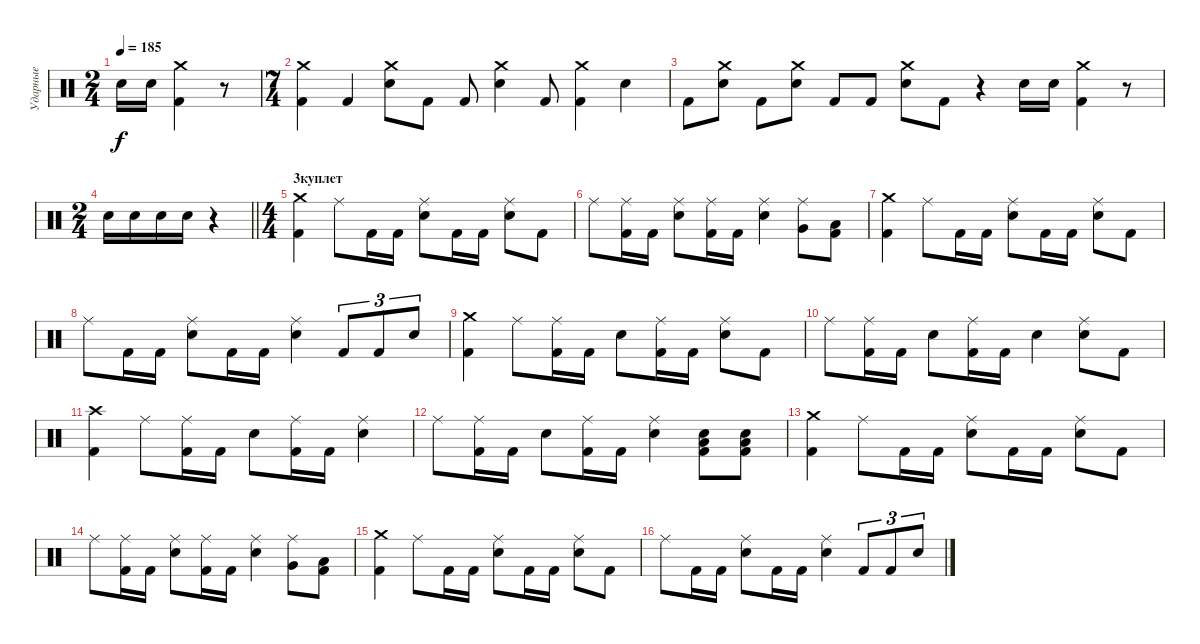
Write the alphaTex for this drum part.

\track ("Ударные" "Ударные") {instrument percussion}
\staff {score}
\articulation defaults
\ts (2 4)
\tempo 185
\clef neutral
\ks c "Electric Snare (hit)".16{dy f} "Electric Snare (hit)".16
("Crash medium (hit)" "Kick (hit) 2").4 r.8 |
\ts (7 4)
("Crash medium (hit)" "Kick (hit) 2").4 "Kick (hit) 2".4 ("Crash medium (hit)" "Electric Snare (hit)").8 "Kick (hit) 2".8 "Kick (hit) 2".8 ("Crash medium (hit)" "Electric Snare (hit)").4 "Kick (hit) 2".8 ("Crash medium (hit)" "Kick (hit) 2").4 "Electric Snare (hit)".4 |
"Kick (hit) 2".8 ("Crash medium (hit)" "Electric Snare (hit)").8 "Kick (hit) 2".8 ("Crash medium (hit)" "Electric Snare (hit)").8 "Kick (hit) 2".8 "Kick (hit) 2".8 ("Crash medium (hit)" "Electric Snare (hit)").8 "Kick (hit) 2".8 r.4 "Electric Snare (hit)".16 "Electric Snare (hit)".16 ("Crash medium (hit)" "Kick (hit) 2").4 r.8 |
\ts (2 4)
\barLineRight lightlight "Electric Snare (hit)".16 "Electric Snare (hit)".16 "Electric Snare (hit)".16 "Electric Snare (hit)".16
r.4 |
\ts (4 4)
\section ("" "3куплет")
("Crash medium (hit)" "Kick (hit) 2").4 "Ride (middle)".8 "Kick (hit) 2".16 "Kick (hit) 2".16 ("Ride (middle)" "Electric Snare (hit)").8 "Kick (hit) 2".16 "Kick (hit) 2".16 ("Ride (middle)" "Electric Snare (hit)").8 "Kick (hit) 2".8 |
"Ride (middle)".8 ("Ride (middle)" "Kick (hit) 2").16 "Kick (hit) 2".16 ("Ride (middle)" "Electric Snare (hit)").8 ("Ride (middle)" "Kick (hit) 2").16 "Kick (hit) 2".16 ("Ride (middle)" "Electric Snare (hit)").4 ("Ride (middle)" "Very Low Tom (hit)").8 ("Low Floor Tom (hit)" "Kick (hit) 2").8 |
("Crash medium (hit)" "Kick (hit) 2").4 "Ride (middle)".8 "Kick (hit) 2".16 "Kick (hit) 2".16 ("Ride (middle)" "Electric Snare (hit)").8 "Kick (hit) 2".16 "Kick (hit) 2".16 ("Ride (middle)" "Electric Snare (hit)").8 "Kick (hit) 2".8 |
"Ride (middle)".8 "Kick (hit) 2".16 "Kick (hit) 2".16 ("Ride (middle)" "Electric Snare (hit)").8 "Kick (hit) 2".16 "Kick (hit) 2".16 ("Ride (middle)" "Electric Snare (hit)").4 "Kick (hit) 2".8{tu (3 2)} "Kick (hit) 2".8{tu (3 2)} "Electric Snare (hit)".8{tu (3 2)} |
("Crash medium (hit)" "Kick (hit) 2").4 "Ride (middle)".8 ("Ride (middle)" "Kick (hit) 2").16 "Kick (hit) 2".16 "Electric Snare (hit)".8 ("Ride (middle)" "Kick (hit) 2").16 "Kick (hit) 2".16 ("Ride (middle)" "Electric Snare (hit)").8 "Kick (hit) 2".8 |
"Ride (middle)".8 ("Ride (middle)" "Kick (hit) 2").16 "Kick (hit) 2".16 "Electric Snare (hit)".8 ("Ride (middle)" "Kick (hit) 2").16 "Kick (hit) 2".16 "Electric Snare (hit)".4 ("Ride (middle)" "Electric Snare (hit)").8 "Kick (hit) 2".8 |
("Crash high (hit)" "Kick (hit) 2").4 "Ride (middle)".8 ("Ride (middle)" "Kick (hit) 2").16 "Kick (hit) 2".16 "Electric Snare (hit)".8 ("Ride (middle)" "Kick (hit) 2").16 "Kick (hit) 2".16 ("Ride (middle)" "Electric Snare (hit)").4 |
"Ride (middle)".8 ("Ride (middle)" "Kick (hit) 2").16 "Kick (hit) 2".16 "Electric Snare (hit)".8 ("Ride (middle)" "Kick (hit) 2").16 "Kick (hit) 2".16 ("Ride (middle)" "Electric Snare (hit)").4 ("Electric Snare (hit)" "Kick (hit) 2" "Low Floor Tom (hit)").8 ("Electric Snare (hit)" "Kick (hit) 2" "Low Floor Tom (hit)").8 |
("Crash medium (hit)" "Kick (hit) 2").4 "Ride (middle)".8 "Kick (hit) 2".16 "Kick (hit) 2".16 ("Ride (middle)" "Electric Snare (hit)").8 "Kick (hit) 2".16 "Kick (hit) 2".16 ("Ride (middle)" "Electric Snare (hit)").8 "Kick (hit) 2".8 |
"Ride (middle)".8 ("Ride (middle)" "Kick (hit) 2").16 "Kick (hit) 2".16 ("Ride (middle)" "Electric Snare (hit)").8 ("Ride (middle)" "Kick (hit) 2").16 "Kick (hit) 2".16 ("Ride (middle)" "Electric Snare (hit)").4 ("Ride (middle)" "Very Low Tom (hit)").8 ("Low Floor Tom (hit)" "Kick (hit) 2").8 |
("Crash medium (hit)" "Kick (hit) 2").4 "Ride (middle)".8 "Kick (hit) 2".16 "Kick (hit) 2".16 ("Ride (middle)" "Electric Snare (hit)").8 "Kick (hit) 2".16 "Kick (hit) 2".16 ("Ride (middle)" "Electric Snare (hit)").8 "Kick (hit) 2".8 |
"Ride (middle)".8 "Kick (hit) 2".16 "Kick (hit) 2".16 ("Ride (middle)" "Electric Snare (hit)").8 "Kick (hit) 2".16 "Kick (hit) 2".16 ("Ride (middle)" "Electric Snare (hit)").4 "Kick (hit) 2".8{tu (3 2)} "Kick (hit) 2".8{tu (3 2)} "Electric Snare (hit)".8{tu (3 2)}
